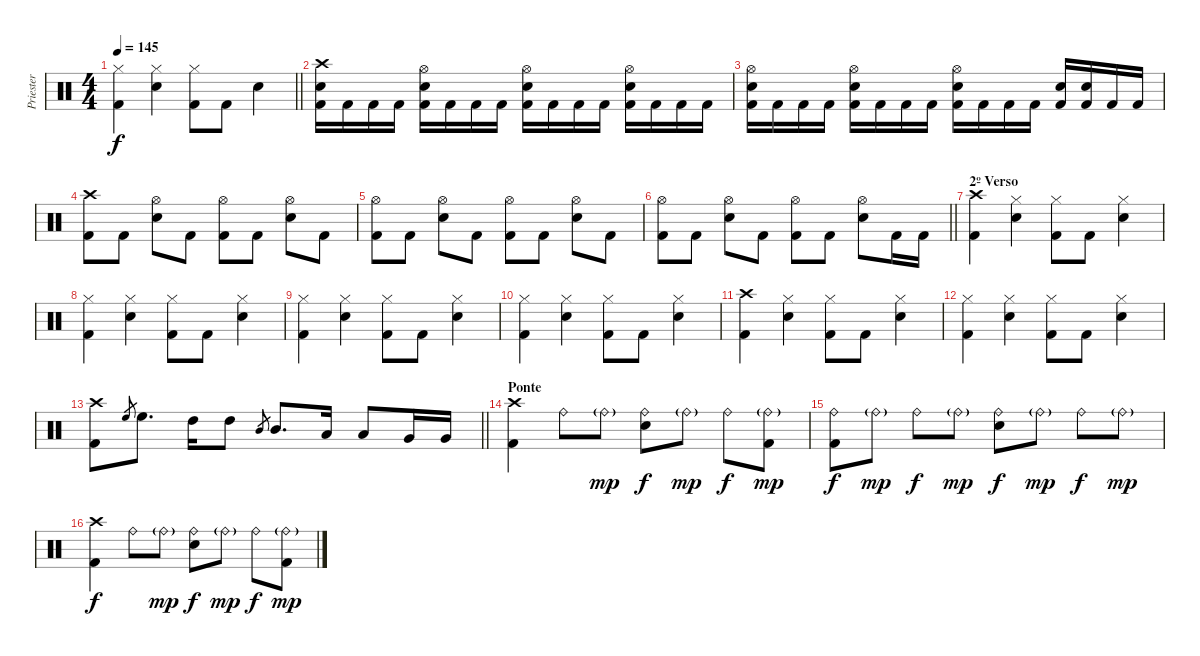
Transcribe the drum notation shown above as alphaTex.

\track ("Priester" "Priester") {instrument percussion}
\staff {score}
\articulation defaults
\ts (4 4)
\tempo 145
\clef neutral
\barLineRight lightlight
\ks c
("Hi-Hat (closed)" "Kick (hit) 2").4{dy f} ("Hi-Hat (closed)" "Electric Snare (hit)").4 ("Hi-Hat (closed)" "Kick (hit) 2").8 "Kick (hit) 2".8 "Electric Snare (hit)".4 |
("Crash high (hit)" "Electric Snare (hit)" "Kick (hit) 2").16 "Kick (hit) 2".16 "Kick (hit) 2".16 "Kick (hit) 2".16 ("Hi-Hat (open)" "Electric Snare (hit)" "Kick (hit) 2").16 "Kick (hit) 2".16 "Kick (hit) 2".16 "Kick (hit) 2".16 ("Hi-Hat (open)" "Electric Snare (hit)" "Kick (hit) 2").16 "Kick (hit) 2".16 "Kick (hit) 2".16 "Kick (hit) 2".16 ("Hi-Hat (open)" "Electric Snare (hit)" "Kick (hit) 2").16 "Kick (hit) 2".16 "Kick (hit) 2".16 "Kick (hit) 2".16 |
("Hi-Hat (open)" "Electric Snare (hit)" "Kick (hit) 2").16 "Kick (hit) 2".16 "Kick (hit) 2".16 "Kick (hit) 2".16 ("Hi-Hat (open)" "Electric Snare (hit)" "Kick (hit) 2").16 "Kick (hit) 2".16 "Kick (hit) 2".16 "Kick (hit) 2".16 ("Hi-Hat (open)" "Electric Snare (hit)" "Kick (hit) 2").16 "Kick (hit) 2".16 "Kick (hit) 2".16 "Kick (hit) 2".16 ("Electric Snare (hit)" "Kick (hit) 2").16 ("Electric Snare (hit)" "Kick (hit) 2").16 "Kick (hit) 2".16 "Kick (hit) 2".16 |
("Crash high (hit)" "Kick (hit) 2").8 "Kick (hit) 2".8 ("Hi-Hat (open)" "Electric Snare (hit)").8 "Kick (hit) 2".8 ("Hi-Hat (open)" "Kick (hit) 2").8 "Kick (hit) 2".8 ("Hi-Hat (open)" "Electric Snare (hit)").8 "Kick (hit) 2".8 |
("Hi-Hat (open)" "Kick (hit) 2").8 "Kick (hit) 2".8 ("Hi-Hat (open)" "Electric Snare (hit)").8 "Kick (hit) 2".8 ("Hi-Hat (open)" "Kick (hit) 2").8 "Kick (hit) 2".8 ("Hi-Hat (open)" "Electric Snare (hit)").8 "Kick (hit) 2".8 |
\barLineRight lightlight
("Hi-Hat (open)" "Kick (hit) 2").8 "Kick (hit) 2".8 ("Hi-Hat (open)" "Electric Snare (hit)").8 "Kick (hit) 2".8 ("Hi-Hat (open)" "Kick (hit) 2").8 "Kick (hit) 2".8 ("Hi-Hat (open)" "Electric Snare (hit)").8 "Kick (hit) 2".16 "Kick (hit) 2".16 |
\section ("" "2º Verso")
("Crash high (hit)" "Kick (hit) 2").4 ("Hi-Hat (closed)" "Electric Snare (hit)").4 ("Hi-Hat (closed)" "Kick (hit) 2").8 "Kick (hit) 2".8 ("Hi-Hat (closed)" "Electric Snare (hit)").4 |
("Hi-Hat (closed)" "Kick (hit) 2").4 ("Hi-Hat (closed)" "Electric Snare (hit)").4 ("Hi-Hat (closed)" "Kick (hit) 2").8 "Kick (hit) 2".8 ("Hi-Hat (closed)" "Electric Snare (hit)").4 |
("Hi-Hat (closed)" "Kick (hit) 2").4 ("Hi-Hat (closed)" "Electric Snare (hit)").4 ("Hi-Hat (closed)" "Kick (hit) 2").8 "Kick (hit) 2".8 ("Hi-Hat (closed)" "Electric Snare (hit)").4 |
("Hi-Hat (closed)" "Kick (hit) 2").4 ("Hi-Hat (closed)" "Electric Snare (hit)").4 ("Hi-Hat (closed)" "Kick (hit) 2").8 "Kick (hit) 2".8 ("Hi-Hat (closed)" "Electric Snare (hit)").4 |
("Crash high (hit)" "Kick (hit) 2").4 ("Hi-Hat (closed)" "Electric Snare (hit)").4 ("Hi-Hat (closed)" "Kick (hit) 2").8 "Kick (hit) 2".8 ("Hi-Hat (closed)" "Electric Snare (hit)").4 |
("Hi-Hat (closed)" "Kick (hit) 2").4 ("Hi-Hat (closed)" "Electric Snare (hit)").4 ("Hi-Hat (closed)" "Kick (hit) 2").8 "Kick (hit) 2".8 ("Hi-Hat (closed)" "Electric Snare (hit)").4 |
\barLineRight lightlight
("Crash high (hit)" "Kick (hit) 2").8 "High Floor Tom (hit)".8{gr} "High Floor Tom (hit)".8{d} "High Tom (hit)".16 "High Tom (hit)".8 "Mid Tom (hit)".8{gr} "Mid Tom (hit)".8{d} "Low Tom (hit)".16 "Low Tom (hit)".8 "Very Low Tom (hit)".16 "Very Low Tom (hit)".16 |
\section ("" "Ponte")
("Crash high (hit)" "Kick (hit) 2").4 "Ride (bell)".8 "Ride (bell)"{g}.8{dy mp} ("Ride (bell)" "Electric Snare (hit)").8{dy f} "Ride (bell)"{g}.8{dy mp} "Ride (bell)".8{dy f} ("Ride (bell)"{g} "Kick (hit) 2").8{dy mp} |
("Ride (bell)" "Kick (hit) 2").8{dy f} "Ride (bell)"{g}.8{dy mp} "Ride (bell)".8{dy f} "Ride (bell)"{g}.8{dy mp} ("Ride (bell)" "Electric Snare (hit)").8{dy f} "Ride (bell)"{g}.8{dy mp} "Ride (bell)".8{dy f} "Ride (bell)"{g}.8{dy mp} |
("Crash high (hit)" "Kick (hit) 2").4{dy f} "Ride (bell)".8 "Ride (bell)"{g}.8{dy mp} ("Ride (bell)" "Electric Snare (hit)").8{dy f} "Ride (bell)"{g}.8{dy mp} "Ride (bell)".8{dy f} ("Ride (bell)"{g} "Kick (hit) 2").8{dy mp}
